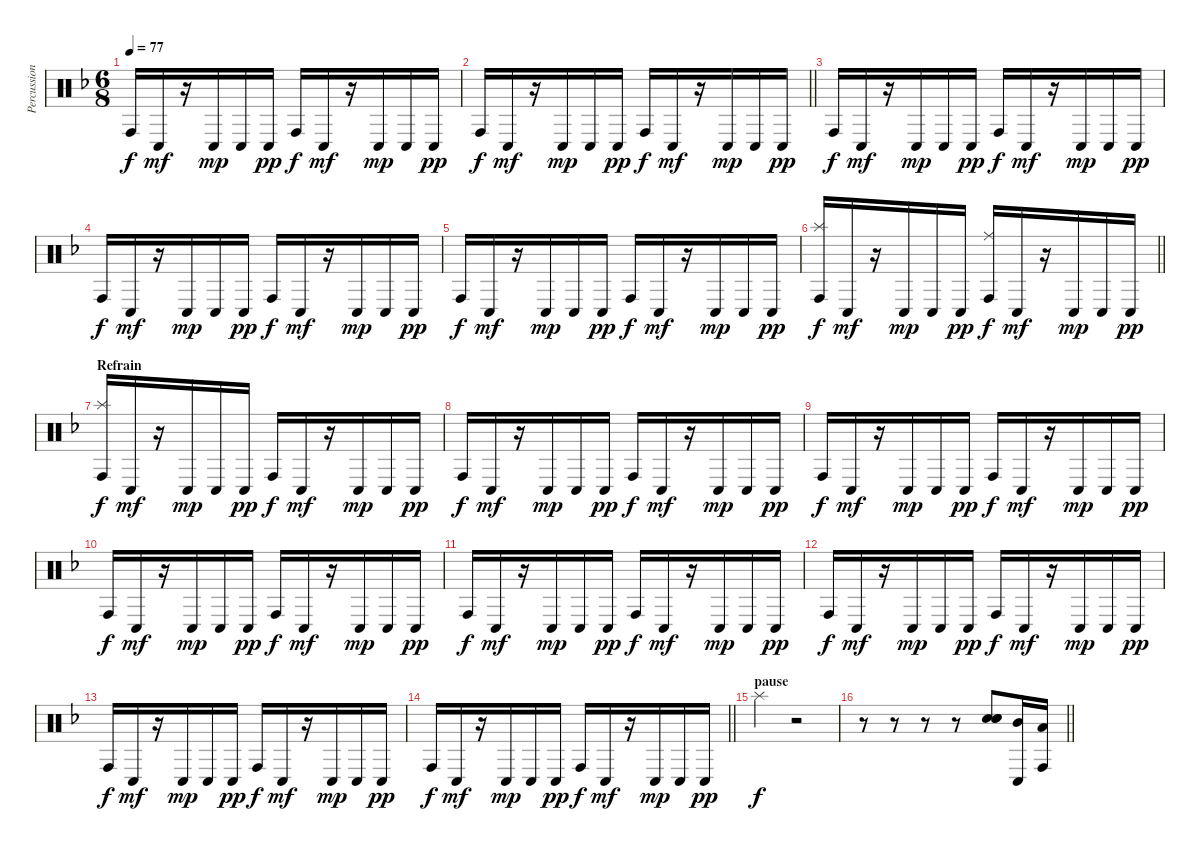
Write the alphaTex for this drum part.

\track ("Percussions" "Percussion") {instrument percussion}
\staff {score}
\articulation defaults
\ts (6 8)
\tempo 77
\clef neutral
\ks f "Conga high (hit)".16{dy f} "Conga low (hit)".16{dy mf}
r.16 "Conga low (hit)".16{dy mp} "Conga low (hit)".16 "Conga low (hit)".16{dy pp} "Conga high (hit)".16{dy f} "Conga low (hit)".16{dy mf} r.16 "Conga low (hit)".16{dy mp} "Conga low (hit)".16 "Conga low (hit)".16{dy pp} |
\barLineRight lightlight "Conga high (hit)".16{dy f} "Conga low (hit)".16{dy mf}
r.16 "Conga low (hit)".16{dy mp} "Conga low (hit)".16 "Conga low (hit)".16{dy pp} "Conga high (hit)".16{dy f} "Conga low (hit)".16{dy mf} r.16 "Conga low (hit)".16{dy mp} "Conga low (hit)".16 "Conga low (hit)".16{dy pp} |
"Conga high (hit)".16{dy f} "Conga low (hit)".16{dy mf} r.16 "Conga low (hit)".16{dy mp} "Conga low (hit)".16 "Conga low (hit)".16{dy pp} "Conga high (hit)".16{dy f} "Conga low (hit)".16{dy mf} r.16 "Conga low (hit)".16{dy mp} "Conga low (hit)".16 "Conga low (hit)".16{dy pp} |
"Conga high (hit)".16{dy f} "Conga low (hit)".16{dy mf} r.16 "Conga low (hit)".16{dy mp} "Conga low (hit)".16 "Conga low (hit)".16{dy pp} "Conga high (hit)".16{dy f} "Conga low (hit)".16{dy mf} r.16 "Conga low (hit)".16{dy mp} "Conga low (hit)".16 "Conga low (hit)".16{dy pp} |
"Conga high (hit)".16{dy f} "Conga low (hit)".16{dy mf} r.16 "Conga low (hit)".16{dy mp} "Conga low (hit)".16 "Conga low (hit)".16{dy pp} "Conga high (hit)".16{dy f} "Conga low (hit)".16{dy mf} r.16 "Conga low (hit)".16{dy mp} "Conga low (hit)".16 "Conga low (hit)".16{dy pp} |
\barLineRight lightlight
("Splash (hit)" "Conga high (hit)").16{dy f} "Conga low (hit)".16{dy mf} r.16 "Conga low (hit)".16{dy mp} "Conga low (hit)".16 "Conga low (hit)".16{dy pp} ("Ride (middle)" "Conga high (hit)").16{dy f} "Conga low (hit)".16{dy mf} r.16 "Conga low (hit)".16{dy mp} "Conga low (hit)".16 "Conga low (hit)".16{dy pp} |
\section ("" "Refrain")
("Splash (hit)" "Conga high (hit)").16{dy f} "Conga low (hit)".16{dy mf} r.16 "Conga low (hit)".16{dy mp} "Conga low (hit)".16 "Conga low (hit)".16{dy pp} "Conga high (hit)".16{dy f} "Conga low (hit)".16{dy mf} r.16 "Conga low (hit)".16{dy mp} "Conga low (hit)".16 "Conga low (hit)".16{dy pp} |
"Conga high (hit)".16{dy f} "Conga low (hit)".16{dy mf} r.16 "Conga low (hit)".16{dy mp} "Conga low (hit)".16 "Conga low (hit)".16{dy pp} "Conga high (hit)".16{dy f} "Conga low (hit)".16{dy mf} r.16 "Conga low (hit)".16{dy mp} "Conga low (hit)".16 "Conga low (hit)".16{dy pp} |
"Conga high (hit)".16{dy f} "Conga low (hit)".16{dy mf} r.16 "Conga low (hit)".16{dy mp} "Conga low (hit)".16 "Conga low (hit)".16{dy pp} "Conga high (hit)".16{dy f} "Conga low (hit)".16{dy mf} r.16 "Conga low (hit)".16{dy mp} "Conga low (hit)".16 "Conga low (hit)".16{dy pp} |
"Conga high (hit)".16{dy f} "Conga low (hit)".16{dy mf} r.16 "Conga low (hit)".16{dy mp} "Conga low (hit)".16 "Conga low (hit)".16{dy pp} "Conga high (hit)".16{dy f} "Conga low (hit)".16{dy mf} r.16 "Conga low (hit)".16{dy mp} "Conga low (hit)".16 "Conga low (hit)".16{dy pp} |
"Conga high (hit)".16{dy f} "Conga low (hit)".16{dy mf} r.16 "Conga low (hit)".16{dy mp} "Conga low (hit)".16 "Conga low (hit)".16{dy pp} "Conga high (hit)".16{dy f} "Conga low (hit)".16{dy mf} r.16 "Conga low (hit)".16{dy mp} "Conga low (hit)".16 "Conga low (hit)".16{dy pp} |
"Conga high (hit)".16{dy f} "Conga low (hit)".16{dy mf} r.16 "Conga low (hit)".16{dy mp} "Conga low (hit)".16 "Conga low (hit)".16{dy pp} "Conga high (hit)".16{dy f} "Conga low (hit)".16{dy mf} r.16 "Conga low (hit)".16{dy mp} "Conga low (hit)".16 "Conga low (hit)".16{dy pp} |
"Conga high (hit)".16{dy f} "Conga low (hit)".16{dy mf} r.16 "Conga low (hit)".16{dy mp} "Conga low (hit)".16 "Conga low (hit)".16{dy pp} "Conga high (hit)".16{dy f} "Conga low (hit)".16{dy mf} r.16 "Conga low (hit)".16{dy mp} "Conga low (hit)".16 "Conga low (hit)".16{dy pp} |
\barLineRight lightlight "Conga high (hit)".16{dy f} "Conga low (hit)".16{dy mf}
r.16 "Conga low (hit)".16{dy mp} "Conga low (hit)".16 "Conga low (hit)".16{dy pp} "Conga high (hit)".16{dy f} "Conga low (hit)".16{dy mf} r.16 "Conga low (hit)".16{dy mp} "Conga low (hit)".16 "Conga low (hit)".16{dy pp} |
\section ("" "pause")
"Splash (hit)".4{dy f} r.2 |
\barLineRight lightlight
r.8 r.8 r.8 r.8 ("Metronome (bell)" "Electric Snare (hit)" "Snare (hit) 2").8 ("Conga low (hit)" "Mid Tom (hit)").16 ("Conga high (hit)" "Low Tom (hit)").16
